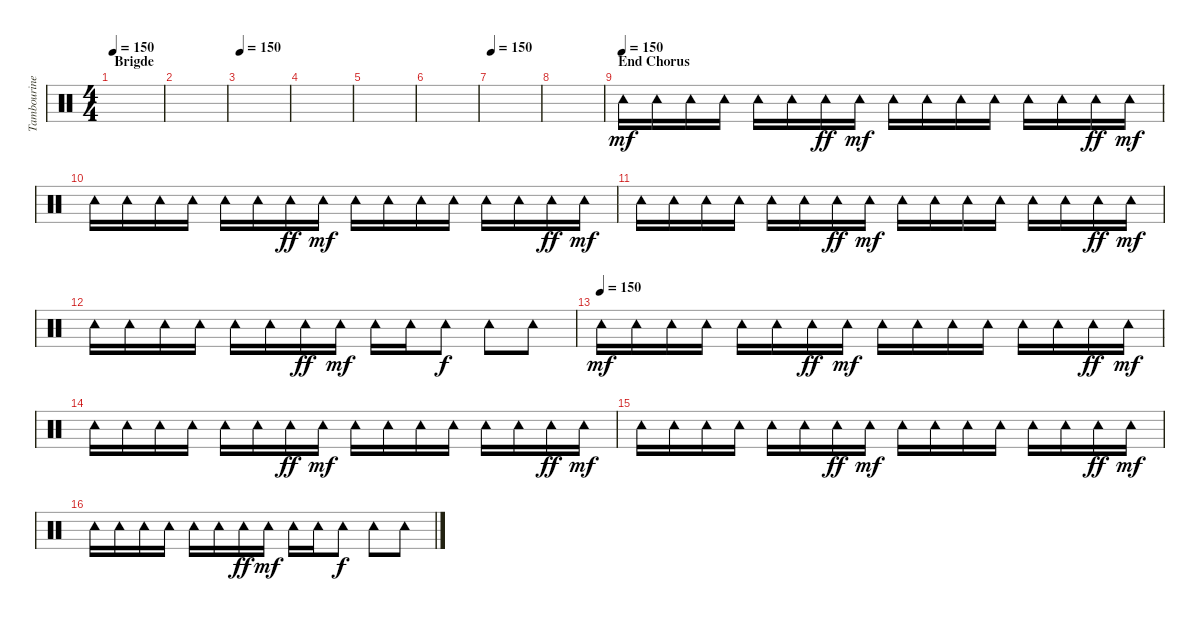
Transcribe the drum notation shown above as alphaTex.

\track ("Tambourine" "Tambourine") {instrument percussion}
\staff {score}
\articulation defaults
\ts (4 4)
\section ("" "Brigde")
\tempo 150
\clef neutral
\ks c
|
|
\tempo 150
|
|
|
|
\tempo 150
|
|
\section ("" "End Chorus ")
\tempo (150)
"Tambourine (hit)".16{dy mf} "Tambourine (hit)".16 "Tambourine (hit)".16 "Tambourine (hit)".16 "Tambourine (hit)".16 "Tambourine (hit)".16 "Tambourine (hit)".16{dy ff} "Tambourine (hit)".16{dy mf} "Tambourine (hit)".16 "Tambourine (hit)".16 "Tambourine (hit)".16 "Tambourine (hit)".16 "Tambourine (hit)".16 "Tambourine (hit)".16 "Tambourine (hit)".16{dy ff} "Tambourine (hit)".16{dy mf} |
"Tambourine (hit)".16 "Tambourine (hit)".16 "Tambourine (hit)".16 "Tambourine (hit)".16 "Tambourine (hit)".16 "Tambourine (hit)".16 "Tambourine (hit)".16{dy ff} "Tambourine (hit)".16{dy mf} "Tambourine (hit)".16 "Tambourine (hit)".16 "Tambourine (hit)".16 "Tambourine (hit)".16 "Tambourine (hit)".16 "Tambourine (hit)".16 "Tambourine (hit)".16{dy ff} "Tambourine (hit)".16{dy mf} |
"Tambourine (hit)".16 "Tambourine (hit)".16 "Tambourine (hit)".16 "Tambourine (hit)".16 "Tambourine (hit)".16 "Tambourine (hit)".16 "Tambourine (hit)".16{dy ff} "Tambourine (hit)".16{dy mf} "Tambourine (hit)".16 "Tambourine (hit)".16 "Tambourine (hit)".16 "Tambourine (hit)".16 "Tambourine (hit)".16 "Tambourine (hit)".16 "Tambourine (hit)".16{dy ff} "Tambourine (hit)".16{dy mf} |
"Tambourine (hit)".16 "Tambourine (hit)".16 "Tambourine (hit)".16 "Tambourine (hit)".16 "Tambourine (hit)".16 "Tambourine (hit)".16 "Tambourine (hit)".16{dy ff} "Tambourine (hit)".16{dy mf} "Tambourine (hit)".16 "Tambourine (hit)".16 "Tambourine (hit)".8{dy f} "Tambourine (hit)".8 "Tambourine (hit)".8 |
\tempo (150)
"Tambourine (hit)".16{dy mf} "Tambourine (hit)".16 "Tambourine (hit)".16 "Tambourine (hit)".16 "Tambourine (hit)".16 "Tambourine (hit)".16 "Tambourine (hit)".16{dy ff} "Tambourine (hit)".16{dy mf} "Tambourine (hit)".16 "Tambourine (hit)".16 "Tambourine (hit)".16 "Tambourine (hit)".16 "Tambourine (hit)".16 "Tambourine (hit)".16 "Tambourine (hit)".16{dy ff} "Tambourine (hit)".16{dy mf} |
"Tambourine (hit)".16 "Tambourine (hit)".16 "Tambourine (hit)".16 "Tambourine (hit)".16 "Tambourine (hit)".16 "Tambourine (hit)".16 "Tambourine (hit)".16{dy ff} "Tambourine (hit)".16{dy mf} "Tambourine (hit)".16 "Tambourine (hit)".16 "Tambourine (hit)".16 "Tambourine (hit)".16 "Tambourine (hit)".16 "Tambourine (hit)".16 "Tambourine (hit)".16{dy ff} "Tambourine (hit)".16{dy mf} |
"Tambourine (hit)".16 "Tambourine (hit)".16 "Tambourine (hit)".16 "Tambourine (hit)".16 "Tambourine (hit)".16 "Tambourine (hit)".16 "Tambourine (hit)".16{dy ff} "Tambourine (hit)".16{dy mf} "Tambourine (hit)".16 "Tambourine (hit)".16 "Tambourine (hit)".16 "Tambourine (hit)".16 "Tambourine (hit)".16 "Tambourine (hit)".16 "Tambourine (hit)".16{dy ff} "Tambourine (hit)".16{dy mf} |
"Tambourine (hit)".16 "Tambourine (hit)".16 "Tambourine (hit)".16 "Tambourine (hit)".16 "Tambourine (hit)".16 "Tambourine (hit)".16 "Tambourine (hit)".16{dy ff} "Tambourine (hit)".16{dy mf} "Tambourine (hit)".16 "Tambourine (hit)".16 "Tambourine (hit)".8{dy f} "Tambourine (hit)".8 "Tambourine (hit)".8
